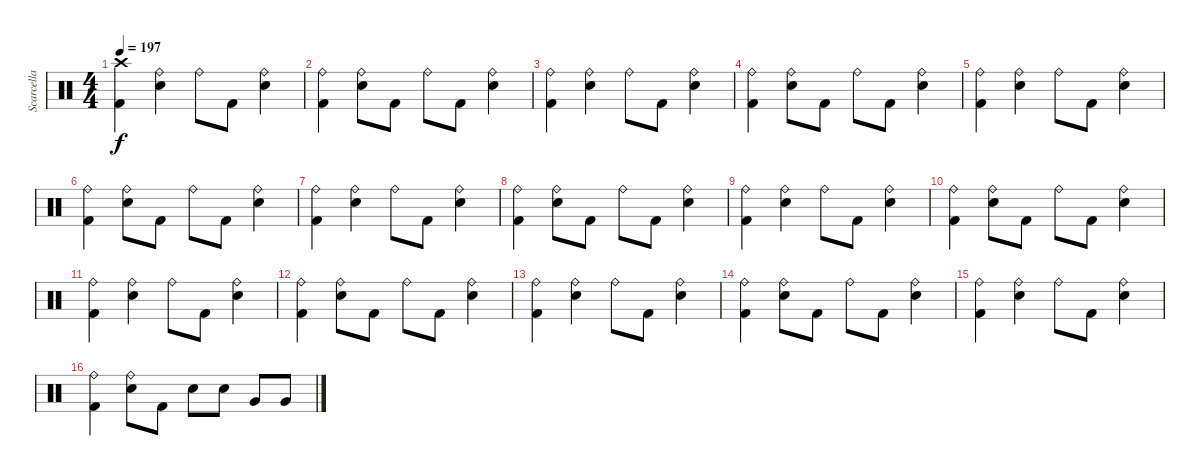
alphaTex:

\track ("Scarcella" "Scarcella") {instrument percussion}
\staff {score}
\articulation defaults
\ts (4 4)
\tempo 197
\clef neutral
\ks c
("Crash high (hit)" "Kick (hit) 2").4{dy f} ("Ride (bell)" "Electric Snare (hit)").4 "Ride (bell)".8 "Kick (hit) 2".8 ("Ride (bell)" "Electric Snare (hit)").4 |
("Ride (bell)" "Kick (hit) 2").4 ("Ride (bell)" "Electric Snare (hit)").8 "Kick (hit) 2".8 "Ride (bell)".8 "Kick (hit) 2".8 ("Ride (bell)" "Electric Snare (hit)").4 |
("Ride (bell)" "Kick (hit) 2").4 ("Ride (bell)" "Electric Snare (hit)").4 "Ride (bell)".8 "Kick (hit) 2".8 ("Ride (bell)" "Electric Snare (hit)").4 |
("Ride (bell)" "Kick (hit) 2").4 ("Ride (bell)" "Electric Snare (hit)").8 "Kick (hit) 2".8 "Ride (bell)".8 "Kick (hit) 2".8 ("Ride (bell)" "Electric Snare (hit)").4 |
("Ride (bell)" "Kick (hit) 2").4 ("Ride (bell)" "Electric Snare (hit)").4 "Ride (bell)".8 "Kick (hit) 2".8 ("Ride (bell)" "Electric Snare (hit)").4 |
("Ride (bell)" "Kick (hit) 2").4 ("Ride (bell)" "Electric Snare (hit)").8 "Kick (hit) 2".8 "Ride (bell)".8 "Kick (hit) 2".8 ("Ride (bell)" "Electric Snare (hit)").4 |
("Ride (bell)" "Kick (hit) 2").4 ("Ride (bell)" "Electric Snare (hit)").4 "Ride (bell)".8 "Kick (hit) 2".8 ("Ride (bell)" "Electric Snare (hit)").4 |
("Ride (bell)" "Kick (hit) 2").4 ("Ride (bell)" "Electric Snare (hit)").8 "Kick (hit) 2".8 "Ride (bell)".8 "Kick (hit) 2".8 ("Ride (bell)" "Electric Snare (hit)").4 |
("Ride (bell)" "Kick (hit) 2").4 ("Ride (bell)" "Electric Snare (hit)").4 "Ride (bell)".8 "Kick (hit) 2".8 ("Ride (bell)" "Electric Snare (hit)").4 |
("Ride (bell)" "Kick (hit) 2").4 ("Ride (bell)" "Electric Snare (hit)").8 "Kick (hit) 2".8 "Ride (bell)".8 "Kick (hit) 2".8 ("Ride (bell)" "Electric Snare (hit)").4 |
("Ride (bell)" "Kick (hit) 2").4 ("Ride (bell)" "Electric Snare (hit)").4 "Ride (bell)".8 "Kick (hit) 2".8 ("Ride (bell)" "Electric Snare (hit)").4 |
("Ride (bell)" "Kick (hit) 2").4 ("Ride (bell)" "Electric Snare (hit)").8 "Kick (hit) 2".8 "Ride (bell)".8 "Kick (hit) 2".8 ("Ride (bell)" "Electric Snare (hit)").4 |
("Ride (bell)" "Kick (hit) 2").4 ("Ride (bell)" "Electric Snare (hit)").4 "Ride (bell)".8 "Kick (hit) 2".8 ("Ride (bell)" "Electric Snare (hit)").4 |
("Ride (bell)" "Kick (hit) 2").4 ("Ride (bell)" "Electric Snare (hit)").8 "Kick (hit) 2".8 "Ride (bell)".8 "Kick (hit) 2".8 ("Ride (bell)" "Electric Snare (hit)").4 |
("Ride (bell)" "Kick (hit) 2").4 ("Ride (bell)" "Electric Snare (hit)").4 "Ride (bell)".8 "Kick (hit) 2".8 ("Ride (bell)" "Electric Snare (hit)").4 |
("Ride (bell)" "Kick (hit) 2").4 ("Ride (bell)" "Electric Snare (hit)").8 "Kick (hit) 2".8 "Electric Snare (hit)".8 "Electric Snare (hit)".8 "Very Low Tom (hit)".8 "Very Low Tom (hit)".8
